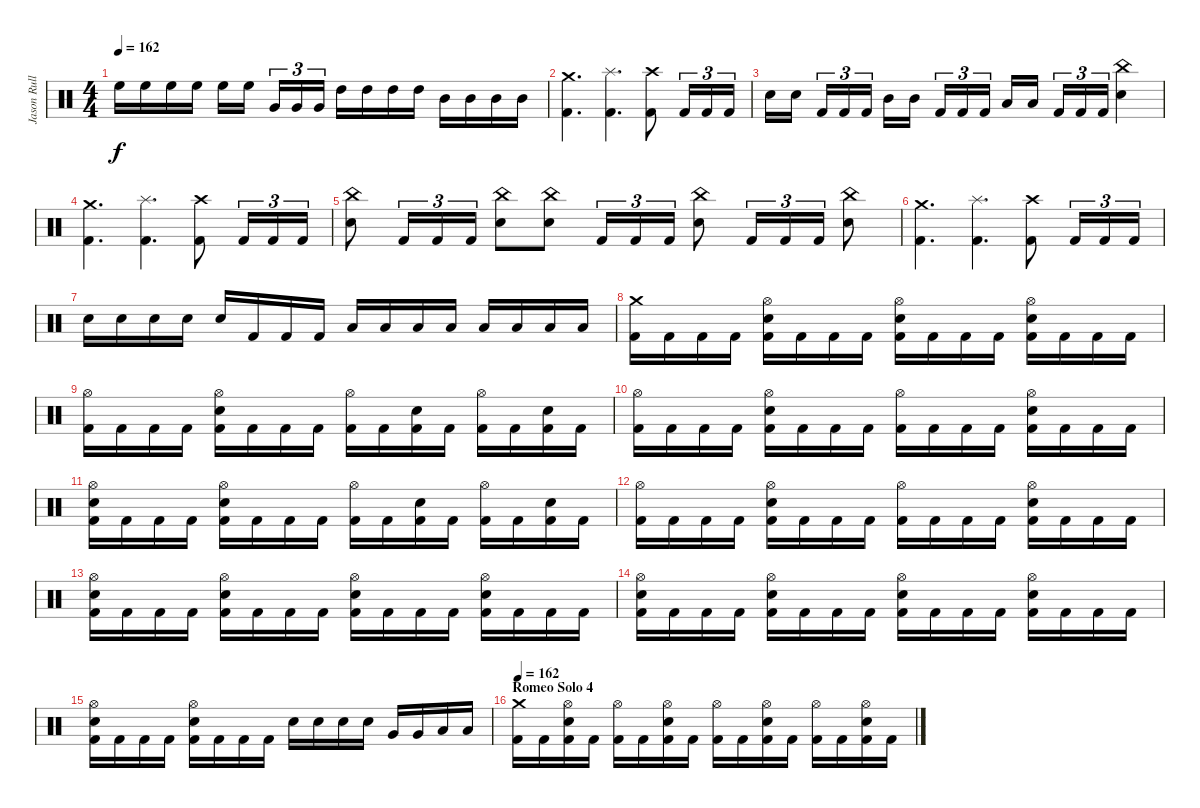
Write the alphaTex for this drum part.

\track ("Jason Rullo" "Jason Rull") {instrument percussion}
\staff {score}
\articulation defaults
\ts (4 4)
\tempo 162
\clef neutral
\ks c "High Floor Tom (hit)".16{dy f} "High Floor Tom (hit)".16 "High Floor Tom (hit)".16 "High Floor Tom (hit)".16 "High Floor Tom (hit)".16 "High Floor Tom (hit)".16 "Very Low Tom (hit)".16{tu (3 2)} "Very Low Tom (hit)".16{tu (3 2)} "Very Low Tom (hit)".16{tu (3 2)} "High Tom (hit)".16 "High Tom (hit)".16 "High Tom (hit)".16 "High Tom (hit)".16 "Mid Tom (hit)".16 "Mid Tom (hit)".16 "Mid Tom (hit)".16 "Mid Tom (hit)".16
|
("Crash medium (hit)" "Kick (hit) 2").4{d} ("Splash (hit)" "Kick (hit) 2").4{d} ("Crash high (hit)" "Kick (hit) 2").8 "Kick (hit) 2".16{tu (3 2)} "Kick (hit) 2".16{tu (3 2)} "Kick (hit) 2".16{tu (3 2)} |
"Electric Snare (hit)".16 "Electric Snare (hit)".16 "Kick (hit) 2".16{tu (3 2)} "Kick (hit) 2".16{tu (3 2)} "Kick (hit) 2".16{tu (3 2)} "Mid Tom (hit)".16 "Mid Tom (hit)".16 "Kick (hit) 2".16{tu (3 2)} "Kick (hit) 2".16{tu (3 2)} "Kick (hit) 2".16{tu (3 2)} "Low Tom (hit)".16 "Low Tom (hit)".16 "Kick (hit) 2".16{tu (3 2)} "Kick (hit) 2".16{tu (3 2)} "Kick (hit) 2".16{tu (3 2)} ("China (hit)" "Electric Snare (hit)").4 |
("Crash medium (hit)" "Kick (hit) 2").4{d} ("Splash (hit)" "Kick (hit) 2").4{d} ("Crash high (hit)" "Kick (hit) 2").8 "Kick (hit) 2".16{tu (3 2)} "Kick (hit) 2".16{tu (3 2)} "Kick (hit) 2".16{tu (3 2)} |
("China (hit)" "Electric Snare (hit)").8 "Kick (hit) 2".16{tu (3 2)} "Kick (hit) 2".16{tu (3 2)} "Kick (hit) 2".16{tu (3 2)} ("China (hit)" "Electric Snare (hit)").8 ("China (hit)" "Electric Snare (hit)").8 "Kick (hit) 2".16{tu (3 2)} "Kick (hit) 2".16{tu (3 2)} "Kick (hit) 2".16{tu (3 2)} ("China (hit)" "Electric Snare (hit)").8 "Kick (hit) 2".16{tu (3 2)} "Kick (hit) 2".16{tu (3 2)} "Kick (hit) 2".16{tu (3 2)} ("China (hit)" "Electric Snare (hit)").8 |
("Crash medium (hit)" "Kick (hit) 2").4{d} ("Splash (hit)" "Kick (hit) 2").4{d} ("Crash high (hit)" "Kick (hit) 2").8 "Kick (hit) 2".16{tu (3 2)} "Kick (hit) 2".16{tu (3 2)} "Kick (hit) 2".16{tu (3 2)} |
"Electric Snare (hit)".16 "Electric Snare (hit)".16 "Electric Snare (hit)".16 "Electric Snare (hit)".16 "Electric Snare (hit)".16 "Kick (hit) 2".16 "Kick (hit) 2".16 "Kick (hit) 2".16 "Low Tom (hit)".16 "Low Tom (hit)".16 "Low Tom (hit)".16 "Low Tom (hit)".16 "Low Tom (hit)".16 "Low Floor Tom (hit)".16 "Low Floor Tom (hit)".16 "Low Floor Tom (hit)".16 |
("Kick (hit) 2" "Crash medium (hit)").16 "Kick (hit) 2".16 "Kick (hit) 2".16 "Kick (hit) 2".16 ("Electric Snare (hit)" "Kick (hit) 2" "Hi-Hat (open)").16 "Kick (hit) 2".16 "Kick (hit) 2".16 "Kick (hit) 2".16 ("Electric Snare (hit)" "Kick (hit) 2" "Hi-Hat (open)").16 "Kick (hit) 2".16 "Kick (hit) 2".16 "Kick (hit) 2".16 ("Electric Snare (hit)" "Kick (hit) 2" "Hi-Hat (open)").16 "Kick (hit) 2".16 "Kick (hit) 2".16 "Kick (hit) 2".16 |
("Hi-Hat (open)" "Kick (hit) 2").16 "Kick (hit) 2".16 "Kick (hit) 2".16 "Kick (hit) 2".16 ("Electric Snare (hit)" "Kick (hit) 2" "Hi-Hat (open)").16 "Kick (hit) 2".16 "Kick (hit) 2".16 "Kick (hit) 2".16 ("Kick (hit) 2" "Hi-Hat (open)").16 "Kick (hit) 2".16 ("Electric Snare (hit)" "Kick (hit) 2").16 "Kick (hit) 2".16 ("Kick (hit) 2" "Hi-Hat (open)").16 "Kick (hit) 2".16 ("Electric Snare (hit)" "Kick (hit) 2").16 "Kick (hit) 2".16 |
("Hi-Hat (open)" "Kick (hit) 2").16 "Kick (hit) 2".16 "Kick (hit) 2".16 "Kick (hit) 2".16 ("Electric Snare (hit)" "Kick (hit) 2" "Hi-Hat (open)").16 "Kick (hit) 2".16 "Kick (hit) 2".16 "Kick (hit) 2".16 ("Kick (hit) 2" "Hi-Hat (open)").16 "Kick (hit) 2".16 "Kick (hit) 2".16 "Kick (hit) 2".16 ("Electric Snare (hit)" "Kick (hit) 2" "Hi-Hat (open)").16 "Kick (hit) 2".16 "Kick (hit) 2".16 "Kick (hit) 2".16 |
("Electric Snare (hit)" "Hi-Hat (open)" "Kick (hit) 2").16 "Kick (hit) 2".16 "Kick (hit) 2".16 "Kick (hit) 2".16 ("Electric Snare (hit)" "Kick (hit) 2" "Hi-Hat (open)").16 "Kick (hit) 2".16 "Kick (hit) 2".16 "Kick (hit) 2".16 ("Kick (hit) 2" "Hi-Hat (open)").16 "Kick (hit) 2".16 ("Electric Snare (hit)" "Kick (hit) 2").16 "Kick (hit) 2".16 ("Kick (hit) 2" "Hi-Hat (open)").16 "Kick (hit) 2".16 ("Electric Snare (hit)" "Kick (hit) 2").16 "Kick (hit) 2".16 |
("Hi-Hat (open)" "Kick (hit) 2").16 "Kick (hit) 2".16 "Kick (hit) 2".16 "Kick (hit) 2".16 ("Electric Snare (hit)" "Kick (hit) 2" "Hi-Hat (open)").16 "Kick (hit) 2".16 "Kick (hit) 2".16 "Kick (hit) 2".16 ("Kick (hit) 2" "Hi-Hat (open)").16 "Kick (hit) 2".16 "Kick (hit) 2".16 "Kick (hit) 2".16 ("Electric Snare (hit)" "Kick (hit) 2" "Hi-Hat (open)").16 "Kick (hit) 2".16 "Kick (hit) 2".16 "Kick (hit) 2".16 |
("Electric Snare (hit)" "Hi-Hat (open)" "Kick (hit) 2").16 "Kick (hit) 2".16 "Kick (hit) 2".16 "Kick (hit) 2".16 ("Electric Snare (hit)" "Kick (hit) 2" "Hi-Hat (open)").16 "Kick (hit) 2".16 "Kick (hit) 2".16 "Kick (hit) 2".16 ("Electric Snare (hit)" "Kick (hit) 2" "Hi-Hat (open)").16 "Kick (hit) 2".16 "Kick (hit) 2".16 "Kick (hit) 2".16 ("Electric Snare (hit)" "Kick (hit) 2" "Hi-Hat (open)").16 "Kick (hit) 2".16 "Kick (hit) 2".16 "Kick (hit) 2".16 |
("Electric Snare (hit)" "Hi-Hat (open)" "Kick (hit) 2").16 "Kick (hit) 2".16 "Kick (hit) 2".16 "Kick (hit) 2".16 ("Electric Snare (hit)" "Kick (hit) 2" "Hi-Hat (open)").16 "Kick (hit) 2".16 "Kick (hit) 2".16 "Kick (hit) 2".16 ("Electric Snare (hit)" "Kick (hit) 2" "Hi-Hat (open)").16 "Kick (hit) 2".16 "Kick (hit) 2".16 "Kick (hit) 2".16 ("Electric Snare (hit)" "Kick (hit) 2" "Hi-Hat (open)").16 "Kick (hit) 2".16 "Kick (hit) 2".16 "Kick (hit) 2".16 |
("Electric Snare (hit)" "Hi-Hat (open)" "Kick (hit) 2").16 "Kick (hit) 2".16 "Kick (hit) 2".16 "Kick (hit) 2".16 ("Electric Snare (hit)" "Kick (hit) 2" "Hi-Hat (open)").16 "Kick (hit) 2".16 "Kick (hit) 2".16 "Kick (hit) 2".16 "Electric Snare (hit)".16 "Electric Snare (hit)".16 "Electric Snare (hit)".16 "Electric Snare (hit)".16 "Very Low Tom (hit)".16 "Very Low Tom (hit)".16 "Low Floor Tom (hit)".16 "Low Floor Tom (hit)".16 |
\section ("" "Romeo Solo 4")
\tempo 162
("Kick (hit) 2" "Crash medium (hit)").16 "Kick (hit) 2".16 ("Kick (hit) 2" "Electric Snare (hit)" "Hi-Hat (open)").16 "Kick (hit) 2".16 ("Kick (hit) 2" "Hi-Hat (open)").16 "Kick (hit) 2".16 ("Kick (hit) 2" "Electric Snare (hit)" "Hi-Hat (open)").16 "Kick (hit) 2".16 ("Kick (hit) 2" "Hi-Hat (open)").16 "Kick (hit) 2".16 ("Kick (hit) 2" "Electric Snare (hit)" "Hi-Hat (open)").16 "Kick (hit) 2".16 ("Kick (hit) 2" "Hi-Hat (open)").16 "Kick (hit) 2".16 ("Kick (hit) 2" "Electric Snare (hit)" "Hi-Hat (open)").16 "Kick (hit) 2".16
